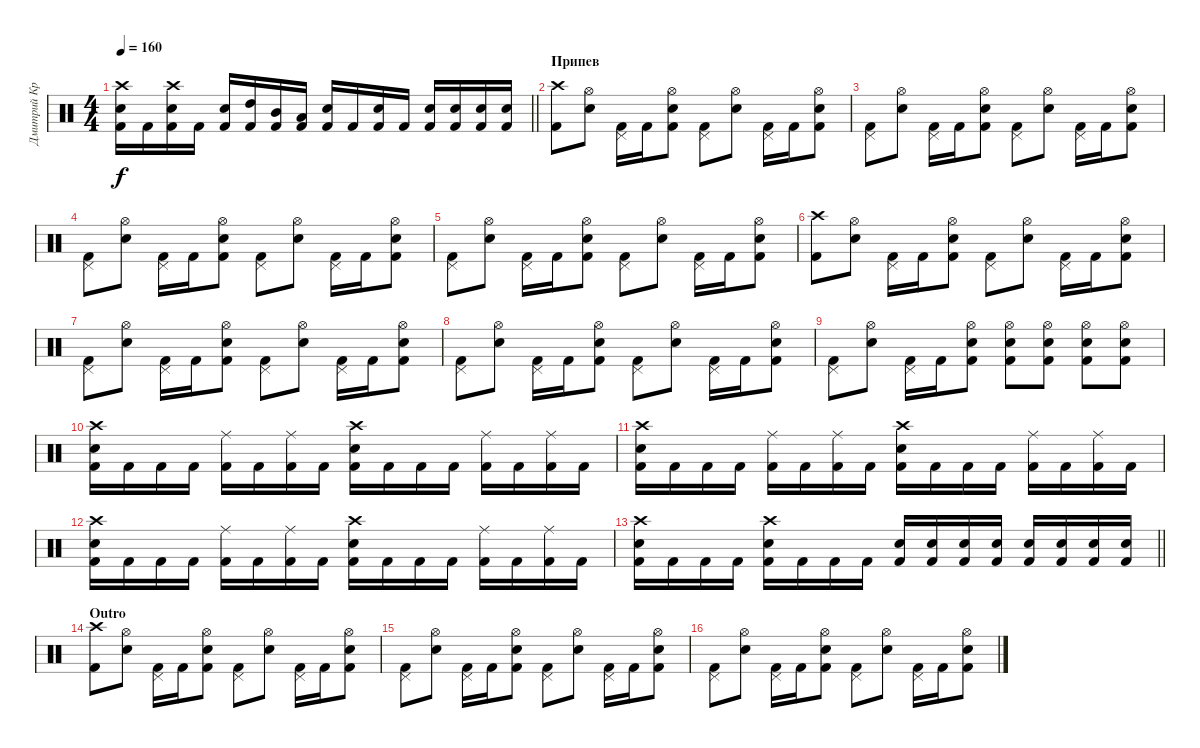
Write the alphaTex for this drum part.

\track ("Дмитрий Кривенков" "Дмитрий Кр") {instrument percussion}
\staff {score}
\articulation defaults
\ts (4 4)
\tempo 160
\clef neutral
\barLineRight lightlight
\ks c
("Crash high (hit)" "Electric Snare (hit)" "Kick (hit) 2").16{dy f} "Kick (hit) 2".16 ("Crash high (hit)" "Electric Snare (hit)" "Kick (hit) 2").16 "Kick (hit) 2".16 ("Electric Snare (hit)" "Kick (hit) 2").16 ("High Tom (hit)" "Kick (hit) 2").16 ("Mid Tom (hit)" "Kick (hit) 2").16 ("Low Tom (hit)" "Kick (hit) 2").16 ("Electric Snare (hit)" "Kick (hit) 2").16 "Kick (hit) 2".16 ("Electric Snare (hit)" "Kick (hit) 2").16 "Kick (hit) 2".16 ("Electric Snare (hit)" "Kick (hit) 2").16 ("Electric Snare (hit)" "Kick (hit) 2").16 ("Electric Snare (hit)" "Kick (hit) 2").16 ("Electric Snare (hit)" "Kick (hit) 2").16 |
\section ("" "Припев")
("Crash high (hit)" "Kick (hit) 2").8 ("Hi-Hat (open)" "Electric Snare (hit)").8 ("Pedal Hi-Hat (hit)" "Kick (hit) 2").16 "Kick (hit) 2".16 ("Hi-Hat (open)" "Electric Snare (hit)" "Kick (hit) 2").8 ("Pedal Hi-Hat (hit)" "Kick (hit) 2").8 ("Hi-Hat (open)" "Electric Snare (hit)").8 ("Pedal Hi-Hat (hit)" "Kick (hit) 2").16 "Kick (hit) 2".16 ("Hi-Hat (open)" "Electric Snare (hit)" "Kick (hit) 2").8 |
("Pedal Hi-Hat (hit)" "Kick (hit) 2").8 ("Hi-Hat (open)" "Electric Snare (hit)").8 ("Pedal Hi-Hat (hit)" "Kick (hit) 2").16 "Kick (hit) 2".16 ("Hi-Hat (open)" "Electric Snare (hit)" "Kick (hit) 2").8 ("Pedal Hi-Hat (hit)" "Kick (hit) 2").8 ("Hi-Hat (open)" "Electric Snare (hit)").8 ("Pedal Hi-Hat (hit)" "Kick (hit) 2").16 "Kick (hit) 2".16 ("Hi-Hat (open)" "Electric Snare (hit)" "Kick (hit) 2").8 |
("Pedal Hi-Hat (hit)" "Kick (hit) 2").8 ("Hi-Hat (open)" "Electric Snare (hit)").8 ("Pedal Hi-Hat (hit)" "Kick (hit) 2").16 "Kick (hit) 2".16 ("Hi-Hat (open)" "Electric Snare (hit)" "Kick (hit) 2").8 ("Pedal Hi-Hat (hit)" "Kick (hit) 2").8 ("Hi-Hat (open)" "Electric Snare (hit)").8 ("Pedal Hi-Hat (hit)" "Kick (hit) 2").16 "Kick (hit) 2".16 ("Hi-Hat (open)" "Electric Snare (hit)" "Kick (hit) 2").8 |
("Pedal Hi-Hat (hit)" "Kick (hit) 2").8 ("Hi-Hat (open)" "Electric Snare (hit)").8 ("Pedal Hi-Hat (hit)" "Kick (hit) 2").16 "Kick (hit) 2".16 ("Hi-Hat (open)" "Electric Snare (hit)" "Kick (hit) 2").8 ("Pedal Hi-Hat (hit)" "Kick (hit) 2").8 ("Hi-Hat (open)" "Electric Snare (hit)").8 ("Pedal Hi-Hat (hit)" "Kick (hit) 2").16 "Kick (hit) 2".16 ("Hi-Hat (open)" "Electric Snare (hit)" "Kick (hit) 2").8 |
("Crash high (hit)" "Kick (hit) 2").8 ("Hi-Hat (open)" "Electric Snare (hit)").8 ("Pedal Hi-Hat (hit)" "Kick (hit) 2").16 "Kick (hit) 2".16 ("Hi-Hat (open)" "Electric Snare (hit)" "Kick (hit) 2").8 ("Pedal Hi-Hat (hit)" "Kick (hit) 2").8 ("Hi-Hat (open)" "Electric Snare (hit)").8 ("Pedal Hi-Hat (hit)" "Kick (hit) 2").16 "Kick (hit) 2".16 ("Hi-Hat (open)" "Electric Snare (hit)" "Kick (hit) 2").8 |
("Pedal Hi-Hat (hit)" "Kick (hit) 2").8 ("Hi-Hat (open)" "Electric Snare (hit)").8 ("Pedal Hi-Hat (hit)" "Kick (hit) 2").16 "Kick (hit) 2".16 ("Hi-Hat (open)" "Electric Snare (hit)" "Kick (hit) 2").8 ("Pedal Hi-Hat (hit)" "Kick (hit) 2").8 ("Hi-Hat (open)" "Electric Snare (hit)").8 ("Pedal Hi-Hat (hit)" "Kick (hit) 2").16 "Kick (hit) 2".16 ("Hi-Hat (open)" "Electric Snare (hit)" "Kick (hit) 2").8 |
("Pedal Hi-Hat (hit)" "Kick (hit) 2").8 ("Hi-Hat (open)" "Electric Snare (hit)").8 ("Pedal Hi-Hat (hit)" "Kick (hit) 2").16 "Kick (hit) 2".16 ("Hi-Hat (open)" "Electric Snare (hit)" "Kick (hit) 2").8 ("Pedal Hi-Hat (hit)" "Kick (hit) 2").8 ("Hi-Hat (open)" "Electric Snare (hit)").8 ("Pedal Hi-Hat (hit)" "Kick (hit) 2").16 "Kick (hit) 2".16 ("Hi-Hat (open)" "Electric Snare (hit)" "Kick (hit) 2").8 |
("Pedal Hi-Hat (hit)" "Kick (hit) 2").8 ("Hi-Hat (open)" "Electric Snare (hit)").8 ("Pedal Hi-Hat (hit)" "Kick (hit) 2").16 "Kick (hit) 2".16 ("Hi-Hat (open)" "Electric Snare (hit)" "Kick (hit) 2").8 ("Hi-Hat (open)" "Electric Snare (hit)" "Kick (hit) 2").8 ("Hi-Hat (open)" "Electric Snare (hit)" "Kick (hit) 2").8 ("Hi-Hat (open)" "Electric Snare (hit)" "Kick (hit) 2").8 ("Hi-Hat (open)" "Electric Snare (hit)" "Kick (hit) 2").8 |
("Crash high (hit)" "Electric Snare (hit)" "Kick (hit) 2").16 "Kick (hit) 2".16 "Kick (hit) 2".16 "Kick (hit) 2".16 ("Ride (middle)" "Kick (hit) 2").16 "Kick (hit) 2".16 ("Ride (middle)" "Kick (hit) 2").16 "Kick (hit) 2".16 ("Crash high (hit)" "Electric Snare (hit)" "Kick (hit) 2").16 "Kick (hit) 2".16 "Kick (hit) 2".16 "Kick (hit) 2".16 ("Ride (middle)" "Kick (hit) 2").16 "Kick (hit) 2".16 ("Ride (middle)" "Kick (hit) 2").16 "Kick (hit) 2".16 |
("Crash high (hit)" "Electric Snare (hit)" "Kick (hit) 2").16 "Kick (hit) 2".16 "Kick (hit) 2".16 "Kick (hit) 2".16 ("Ride (middle)" "Kick (hit) 2").16 "Kick (hit) 2".16 ("Ride (middle)" "Kick (hit) 2").16 "Kick (hit) 2".16 ("Crash high (hit)" "Electric Snare (hit)" "Kick (hit) 2").16 "Kick (hit) 2".16 "Kick (hit) 2".16 "Kick (hit) 2".16 ("Ride (middle)" "Kick (hit) 2").16 "Kick (hit) 2".16 ("Ride (middle)" "Kick (hit) 2").16 "Kick (hit) 2".16 |
("Crash high (hit)" "Electric Snare (hit)" "Kick (hit) 2").16 "Kick (hit) 2".16 "Kick (hit) 2".16 "Kick (hit) 2".16 ("Ride (middle)" "Kick (hit) 2").16 "Kick (hit) 2".16 ("Ride (middle)" "Kick (hit) 2").16 "Kick (hit) 2".16 ("Crash high (hit)" "Electric Snare (hit)" "Kick (hit) 2").16 "Kick (hit) 2".16 "Kick (hit) 2".16 "Kick (hit) 2".16 ("Ride (middle)" "Kick (hit) 2").16 "Kick (hit) 2".16 ("Ride (middle)" "Kick (hit) 2").16 "Kick (hit) 2".16 |
\barLineRight lightlight
("Crash high (hit)" "Electric Snare (hit)" "Kick (hit) 2").16 "Kick (hit) 2".16 "Kick (hit) 2".16 "Kick (hit) 2".16 ("Crash high (hit)" "Electric Snare (hit)" "Kick (hit) 2").16 "Kick (hit) 2".16 "Kick (hit) 2".16 "Kick (hit) 2".16 ("Electric Snare (hit)" "Kick (hit) 2").16 ("Electric Snare (hit)" "Kick (hit) 2").16 ("Electric Snare (hit)" "Kick (hit) 2").16 ("Electric Snare (hit)" "Kick (hit) 2").16 ("Electric Snare (hit)" "Kick (hit) 2").16 ("Electric Snare (hit)" "Kick (hit) 2").16 ("Electric Snare (hit)" "Kick (hit) 2").16 ("Electric Snare (hit)" "Kick (hit) 2").16 |
\section ("" "Outro")
("Crash high (hit)" "Kick (hit) 2").8 ("Hi-Hat (open)" "Electric Snare (hit)").8 ("Pedal Hi-Hat (hit)" "Kick (hit) 2").16 "Kick (hit) 2".16 ("Hi-Hat (open)" "Electric Snare (hit)" "Kick (hit) 2").8 ("Pedal Hi-Hat (hit)" "Kick (hit) 2").8 ("Hi-Hat (open)" "Electric Snare (hit)").8 ("Pedal Hi-Hat (hit)" "Kick (hit) 2").16 "Kick (hit) 2".16 ("Hi-Hat (open)" "Electric Snare (hit)" "Kick (hit) 2").8 |
("Pedal Hi-Hat (hit)" "Kick (hit) 2").8 ("Hi-Hat (open)" "Electric Snare (hit)").8 ("Pedal Hi-Hat (hit)" "Kick (hit) 2").16 "Kick (hit) 2".16 ("Hi-Hat (open)" "Electric Snare (hit)" "Kick (hit) 2").8 ("Pedal Hi-Hat (hit)" "Kick (hit) 2").8 ("Hi-Hat (open)" "Electric Snare (hit)").8 ("Pedal Hi-Hat (hit)" "Kick (hit) 2").16 "Kick (hit) 2".16 ("Hi-Hat (open)" "Electric Snare (hit)" "Kick (hit) 2").8 |
("Pedal Hi-Hat (hit)" "Kick (hit) 2").8 ("Hi-Hat (open)" "Electric Snare (hit)").8 ("Pedal Hi-Hat (hit)" "Kick (hit) 2").16 "Kick (hit) 2".16 ("Hi-Hat (open)" "Electric Snare (hit)" "Kick (hit) 2").8 ("Pedal Hi-Hat (hit)" "Kick (hit) 2").8 ("Hi-Hat (open)" "Electric Snare (hit)").8 ("Pedal Hi-Hat (hit)" "Kick (hit) 2").16 "Kick (hit) 2".16 ("Hi-Hat (open)" "Electric Snare (hit)" "Kick (hit) 2").8
